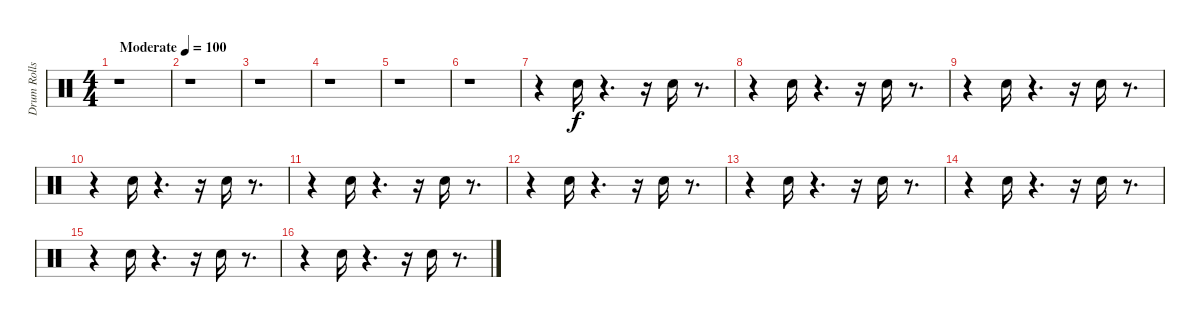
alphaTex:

\track ("Drum Rolls" "Drum Rolls") {instrument percussion}
\staff {score}
\articulation defaults
\ts (4 4)
\tempo (100 "Moderate")
\clef neutral
\ks c
r.1{dy f} |
r.1 |
r.1 |
r.1 |
r.1 |
r.1 |
r.4 "Snare (hit)".16 r.4{d} r.16 "Snare (hit)".16 r.8{d} |
r.4 "Snare (hit)".16 r.4{d} r.16 "Snare (hit)".16 r.8{d} |
r.4 "Snare (hit)".16 r.4{d} r.16 "Snare (hit)".16 r.8{d} |
r.4 "Snare (hit)".16 r.4{d} r.16 "Snare (hit)".16 r.8{d} |
r.4 "Snare (hit)".16 r.4{d} r.16 "Snare (hit)".16 r.8{d} |
r.4 "Snare (hit)".16 r.4{d} r.16 "Snare (hit)".16 r.8{d} |
r.4 "Snare (hit)".16 r.4{d} r.16 "Snare (hit)".16 r.8{d} |
r.4 "Snare (hit)".16 r.4{d} r.16 "Snare (hit)".16 r.8{d} |
r.4 "Snare (hit)".16 r.4{d} r.16 "Snare (hit)".16 r.8{d} |
r.4 "Snare (hit)".16 r.4{d} r.16 "Snare (hit)".16 r.8{d}
